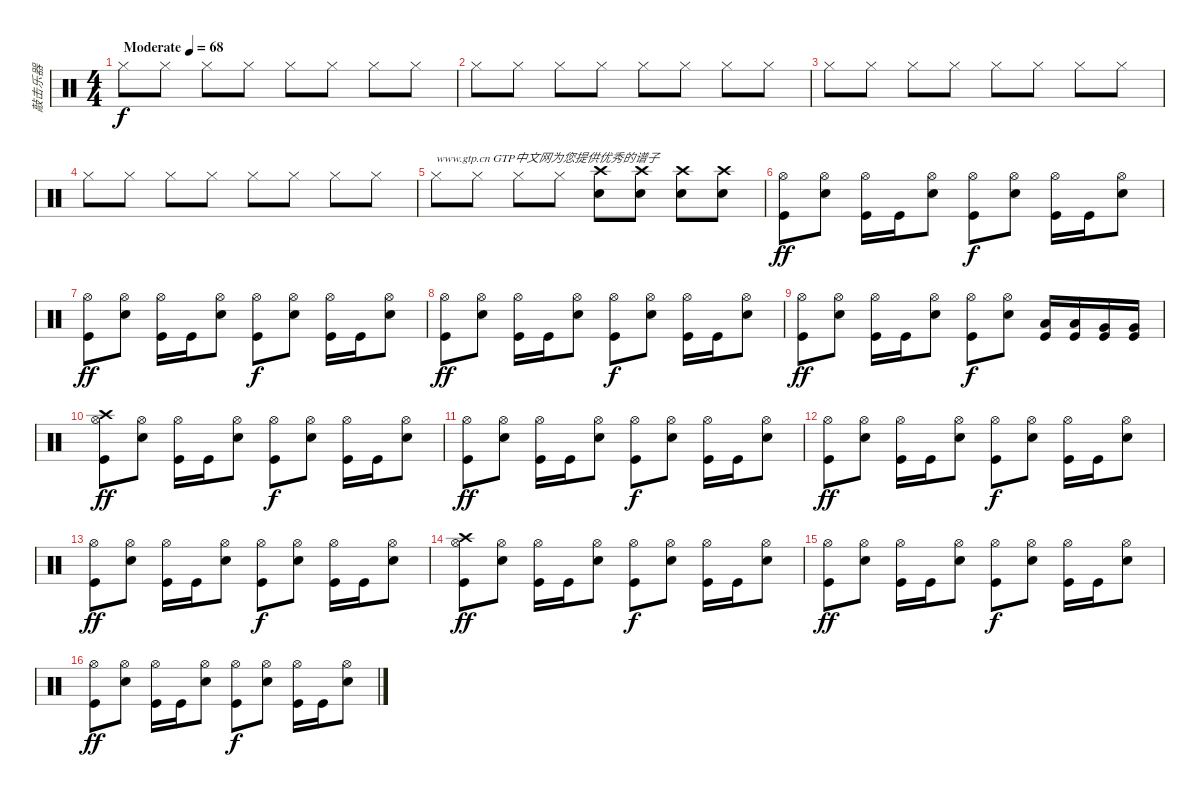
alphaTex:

\track ("敲击乐器" "敲击乐器") {instrument percussion}
\staff {score}
\articulation defaults
\ts (4 4)
\tempo (68 "Moderate")
\clef neutral
\ks c "Hi-Hat (closed)".8{dy f} "Hi-Hat (closed)".8 "Hi-Hat (closed)".8 "Hi-Hat (closed)".8 "Hi-Hat (closed)".8 "Hi-Hat (closed)".8 "Hi-Hat (closed)".8 "Hi-Hat (closed)".8
|
"Hi-Hat (closed)".8 "Hi-Hat (closed)".8 "Hi-Hat (closed)".8 "Hi-Hat (closed)".8 "Hi-Hat (closed)".8 "Hi-Hat (closed)".8 "Hi-Hat (closed)".8 "Hi-Hat (closed)".8 |
"Hi-Hat (closed)".8 "Hi-Hat (closed)".8 "Hi-Hat (closed)".8 "Hi-Hat (closed)".8 "Hi-Hat (closed)".8 "Hi-Hat (closed)".8 "Hi-Hat (closed)".8 "Hi-Hat (closed)".8 |
"Hi-Hat (closed)".8 "Hi-Hat (closed)".8 "Hi-Hat (closed)".8 "Hi-Hat (closed)".8 "Hi-Hat (closed)".8 "Hi-Hat (closed)".8 "Hi-Hat (closed)".8 "Hi-Hat (closed)".8 |
"Hi-Hat (closed)".8{txt "www.gtp.cn GTP中文网为您提供优秀的谱子"} "Hi-Hat (closed)".8 "Hi-Hat (closed)".8 "Hi-Hat (closed)".8 ("Crash high (hit)" "Snare (hit) 2").8 ("Crash high (hit)" "Snare (hit) 2").8 ("Crash high (hit)" "Snare (hit) 2").8 ("Crash high (hit)" "Snare (hit) 2").8 |
("Hi-Hat (open)" "Kick (hit)").8{dy ff} ("Hi-Hat (open)" "Snare (hit) 2").8 ("Hi-Hat (open)" "Kick (hit)").16 "Kick (hit)".16 ("Hi-Hat (open)" "Snare (hit) 2").8 ("Hi-Hat (open)" "Kick (hit)").8{dy f} ("Hi-Hat (open)" "Snare (hit) 2").8 ("Hi-Hat (open)" "Kick (hit)").16 "Kick (hit)".16 ("Hi-Hat (open)" "Snare (hit) 2").8 |
("Hi-Hat (open)" "Kick (hit)").8{dy ff} ("Hi-Hat (open)" "Snare (hit) 2").8 ("Hi-Hat (open)" "Kick (hit)").16 "Kick (hit)".16 ("Hi-Hat (open)" "Snare (hit) 2").8 ("Hi-Hat (open)" "Kick (hit)").8{dy f} ("Hi-Hat (open)" "Snare (hit) 2").8 ("Hi-Hat (open)" "Kick (hit)").16 "Kick (hit)".16 ("Hi-Hat (open)" "Snare (hit) 2").8 |
("Hi-Hat (open)" "Kick (hit)").8{dy ff} ("Hi-Hat (open)" "Snare (hit) 2").8 ("Hi-Hat (open)" "Kick (hit)").16 "Kick (hit)".16 ("Hi-Hat (open)" "Snare (hit) 2").8 ("Hi-Hat (open)" "Kick (hit)").8{dy f} ("Hi-Hat (open)" "Snare (hit) 2").8 ("Hi-Hat (open)" "Kick (hit)").16 "Kick (hit)".16 ("Hi-Hat (open)" "Snare (hit) 2").8 |
("Hi-Hat (open)" "Kick (hit)").8{dy ff} ("Hi-Hat (open)" "Snare (hit) 2").8 ("Hi-Hat (open)" "Kick (hit)").16 "Kick (hit)".16 ("Hi-Hat (open)" "Snare (hit) 2").8 ("Hi-Hat (open)" "Kick (hit)").8{dy f} ("Hi-Hat (open)" "Snare (hit) 2").8 ("Low Tom (hit)" "Kick (hit)").16 ("Low Tom (hit)" "Kick (hit)").16 ("Very Low Tom (hit)" "Kick (hit)").16 ("Very Low Tom (hit)" "Kick (hit)").16 |
("Crash high (hit)" "Hi-Hat (open)" "Kick (hit)").8{dy ff} ("Hi-Hat (open)" "Snare (hit) 2").8 ("Hi-Hat (open)" "Kick (hit)").16 "Kick (hit)".16 ("Hi-Hat (open)" "Snare (hit) 2").8 ("Hi-Hat (open)" "Kick (hit)").8{dy f} ("Hi-Hat (open)" "Snare (hit) 2").8 ("Hi-Hat (open)" "Kick (hit)").16 "Kick (hit)".16 ("Hi-Hat (open)" "Snare (hit) 2").8 |
("Hi-Hat (open)" "Kick (hit)").8{dy ff} ("Hi-Hat (open)" "Snare (hit) 2").8 ("Hi-Hat (open)" "Kick (hit)").16 "Kick (hit)".16 ("Hi-Hat (open)" "Snare (hit) 2").8 ("Hi-Hat (open)" "Kick (hit)").8{dy f} ("Hi-Hat (open)" "Snare (hit) 2").8 ("Hi-Hat (open)" "Kick (hit)").16 "Kick (hit)".16 ("Hi-Hat (open)" "Snare (hit) 2").8 |
("Hi-Hat (open)" "Kick (hit)").8{dy ff} ("Hi-Hat (open)" "Snare (hit) 2").8 ("Hi-Hat (open)" "Kick (hit)").16 "Kick (hit)".16 ("Hi-Hat (open)" "Snare (hit) 2").8 ("Hi-Hat (open)" "Kick (hit)").8{dy f} ("Hi-Hat (open)" "Snare (hit) 2").8 ("Hi-Hat (open)" "Kick (hit)").16 "Kick (hit)".16 ("Hi-Hat (open)" "Snare (hit) 2").8 |
("Hi-Hat (open)" "Kick (hit)").8{dy ff} ("Hi-Hat (open)" "Snare (hit) 2").8 ("Hi-Hat (open)" "Kick (hit)").16 "Kick (hit)".16 ("Hi-Hat (open)" "Snare (hit) 2").8 ("Hi-Hat (open)" "Kick (hit)").8{dy f} ("Hi-Hat (open)" "Snare (hit) 2").8 ("Hi-Hat (open)" "Kick (hit)").16 "Kick (hit)".16 ("Hi-Hat (open)" "Snare (hit) 2").8 |
("Crash high (hit)" "Hi-Hat (open)" "Kick (hit)").8{dy ff} ("Hi-Hat (open)" "Snare (hit) 2").8 ("Hi-Hat (open)" "Kick (hit)").16 "Kick (hit)".16 ("Hi-Hat (open)" "Snare (hit) 2").8 ("Hi-Hat (open)" "Kick (hit)").8{dy f} ("Hi-Hat (open)" "Snare (hit) 2").8 ("Hi-Hat (open)" "Kick (hit)").16 "Kick (hit)".16 ("Hi-Hat (open)" "Snare (hit) 2").8 |
("Hi-Hat (open)" "Kick (hit)").8{dy ff} ("Hi-Hat (open)" "Snare (hit) 2").8 ("Hi-Hat (open)" "Kick (hit)").16 "Kick (hit)".16 ("Hi-Hat (open)" "Snare (hit) 2").8 ("Hi-Hat (open)" "Kick (hit)").8{dy f} ("Hi-Hat (open)" "Snare (hit) 2").8 ("Hi-Hat (open)" "Kick (hit)").16 "Kick (hit)".16 ("Hi-Hat (open)" "Snare (hit) 2").8 |
("Hi-Hat (open)" "Kick (hit)").8{dy ff} ("Hi-Hat (open)" "Snare (hit) 2").8 ("Hi-Hat (open)" "Kick (hit)").16 "Kick (hit)".16 ("Hi-Hat (open)" "Snare (hit) 2").8 ("Hi-Hat (open)" "Kick (hit)").8{dy f} ("Hi-Hat (open)" "Snare (hit) 2").8 ("Hi-Hat (open)" "Kick (hit)").16 "Kick (hit)".16 ("Hi-Hat (open)" "Snare (hit) 2").8
